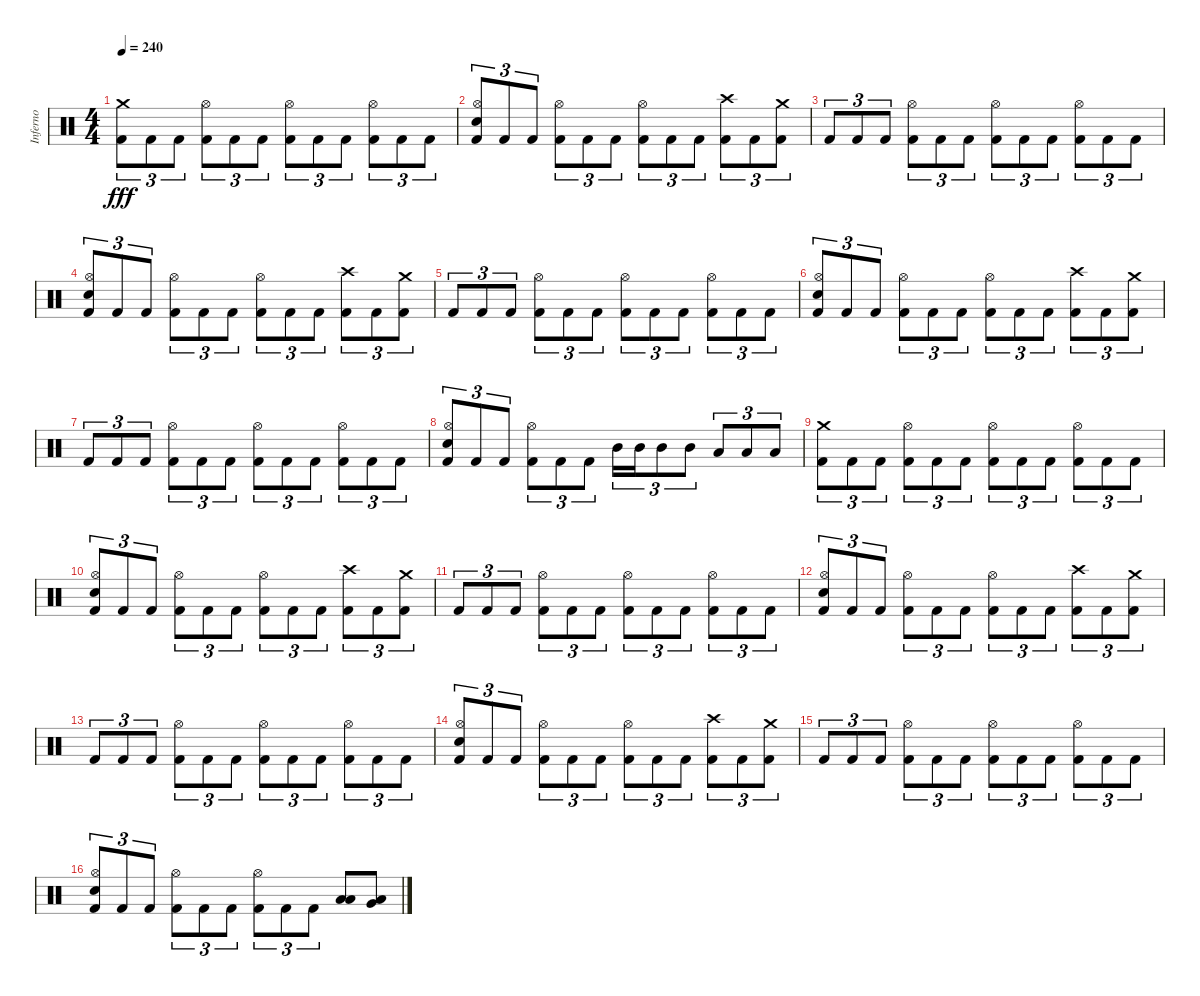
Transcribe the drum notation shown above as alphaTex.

\track ("Inferno" "Inferno") {instrument percussion}
\staff {score}
\articulation defaults
\ts (4 4)
\tempo 240
\clef neutral
\ks c
("Kick (hit) 2" "Crash medium (hit)").8{tu (3 2) dy fff} "Kick (hit) 2".8{tu (3 2)} "Kick (hit) 2".8{tu (3 2)} ("Kick (hit) 2" "Hi-Hat (open)").8{tu (3 2)} "Kick (hit) 2".8{tu (3 2)} "Kick (hit) 2".8{tu (3 2)} ("Kick (hit) 2" "Hi-Hat (open)").8{tu (3 2)} "Kick (hit) 2".8{tu (3 2)} "Kick (hit) 2".8{tu (3 2)} ("Kick (hit) 2" "Hi-Hat (open)").8{tu (3 2)} "Kick (hit) 2".8{tu (3 2)} "Kick (hit) 2".8{tu (3 2)} |
("Kick (hit) 2" "Electric Snare (hit)" "Hi-Hat (open)").8{tu (3 2)} "Kick (hit) 2".8{tu (3 2)} "Kick (hit) 2".8{tu (3 2)} ("Kick (hit) 2" "Hi-Hat (open)").8{tu (3 2)} "Kick (hit) 2".8{tu (3 2)} "Kick (hit) 2".8{tu (3 2)} ("Kick (hit) 2" "Hi-Hat (open)").8{tu (3 2)} "Kick (hit) 2".8{tu (3 2)} "Kick (hit) 2".8{tu (3 2)} ("Kick (hit) 2" "Crash high (hit)").8{tu (3 2)} "Kick (hit) 2".8{tu (3 2)} ("Kick (hit) 2" "Crash medium (hit)").8{tu (3 2)} |
"Kick (hit) 2".8{tu (3 2)} "Kick (hit) 2".8{tu (3 2)} "Kick (hit) 2".8{tu (3 2)} ("Kick (hit) 2" "Hi-Hat (open)").8{tu (3 2)} "Kick (hit) 2".8{tu (3 2)} "Kick (hit) 2".8{tu (3 2)} ("Kick (hit) 2" "Hi-Hat (open)").8{tu (3 2)} "Kick (hit) 2".8{tu (3 2)} "Kick (hit) 2".8{tu (3 2)} ("Kick (hit) 2" "Hi-Hat (open)").8{tu (3 2)} "Kick (hit) 2".8{tu (3 2)} "Kick (hit) 2".8{tu (3 2)} |
("Kick (hit) 2" "Electric Snare (hit)" "Hi-Hat (open)").8{tu (3 2)} "Kick (hit) 2".8{tu (3 2)} "Kick (hit) 2".8{tu (3 2)} ("Kick (hit) 2" "Hi-Hat (open)").8{tu (3 2)} "Kick (hit) 2".8{tu (3 2)} "Kick (hit) 2".8{tu (3 2)} ("Kick (hit) 2" "Hi-Hat (open)").8{tu (3 2)} "Kick (hit) 2".8{tu (3 2)} "Kick (hit) 2".8{tu (3 2)} ("Kick (hit) 2" "Crash high (hit)").8{tu (3 2)} "Kick (hit) 2".8{tu (3 2)} ("Kick (hit) 2" "Crash medium (hit)").8{tu (3 2)} |
"Kick (hit) 2".8{tu (3 2)} "Kick (hit) 2".8{tu (3 2)} "Kick (hit) 2".8{tu (3 2)} ("Kick (hit) 2" "Hi-Hat (open)").8{tu (3 2)} "Kick (hit) 2".8{tu (3 2)} "Kick (hit) 2".8{tu (3 2)} ("Kick (hit) 2" "Hi-Hat (open)").8{tu (3 2)} "Kick (hit) 2".8{tu (3 2)} "Kick (hit) 2".8{tu (3 2)} ("Kick (hit) 2" "Hi-Hat (open)").8{tu (3 2)} "Kick (hit) 2".8{tu (3 2)} "Kick (hit) 2".8{tu (3 2)} |
("Kick (hit) 2" "Electric Snare (hit)" "Hi-Hat (open)").8{tu (3 2)} "Kick (hit) 2".8{tu (3 2)} "Kick (hit) 2".8{tu (3 2)} ("Kick (hit) 2" "Hi-Hat (open)").8{tu (3 2)} "Kick (hit) 2".8{tu (3 2)} "Kick (hit) 2".8{tu (3 2)} ("Kick (hit) 2" "Hi-Hat (open)").8{tu (3 2)} "Kick (hit) 2".8{tu (3 2)} "Kick (hit) 2".8{tu (3 2)} ("Kick (hit) 2" "Crash high (hit)").8{tu (3 2)} "Kick (hit) 2".8{tu (3 2)} ("Kick (hit) 2" "Crash medium (hit)").8{tu (3 2)} |
"Kick (hit) 2".8{tu (3 2)} "Kick (hit) 2".8{tu (3 2)} "Kick (hit) 2".8{tu (3 2)} ("Kick (hit) 2" "Hi-Hat (open)").8{tu (3 2)} "Kick (hit) 2".8{tu (3 2)} "Kick (hit) 2".8{tu (3 2)} ("Kick (hit) 2" "Hi-Hat (open)").8{tu (3 2)} "Kick (hit) 2".8{tu (3 2)} "Kick (hit) 2".8{tu (3 2)} ("Kick (hit) 2" "Hi-Hat (open)").8{tu (3 2)} "Kick (hit) 2".8{tu (3 2)} "Kick (hit) 2".8{tu (3 2)} |
("Kick (hit) 2" "Electric Snare (hit)" "Hi-Hat (open)").8{tu (3 2)} "Kick (hit) 2".8{tu (3 2)} "Kick (hit) 2".8{tu (3 2)} ("Kick (hit) 2" "Hi-Hat (open)").8{tu (3 2)} "Kick (hit) 2".8{tu (3 2)} "Kick (hit) 2".8{tu (3 2)} "Mid Tom (hit)".16{tu (3 2)} "Mid Tom (hit)".16{tu (3 2)} "Mid Tom (hit)".8{tu (3 2)} "Mid Tom (hit)".8{tu (3 2)} "Low Tom (hit)".8{tu (3 2)} "Low Tom (hit)".8{tu (3 2)} "Low Tom (hit)".8{tu (3 2)} |
("Kick (hit) 2" "Crash medium (hit)").8{tu (3 2)} "Kick (hit) 2".8{tu (3 2)} "Kick (hit) 2".8{tu (3 2)} ("Kick (hit) 2" "Hi-Hat (open)").8{tu (3 2)} "Kick (hit) 2".8{tu (3 2)} "Kick (hit) 2".8{tu (3 2)} ("Kick (hit) 2" "Hi-Hat (open)").8{tu (3 2)} "Kick (hit) 2".8{tu (3 2)} "Kick (hit) 2".8{tu (3 2)} ("Kick (hit) 2" "Hi-Hat (open)").8{tu (3 2)} "Kick (hit) 2".8{tu (3 2)} "Kick (hit) 2".8{tu (3 2)} |
("Kick (hit) 2" "Electric Snare (hit)" "Hi-Hat (open)").8{tu (3 2)} "Kick (hit) 2".8{tu (3 2)} "Kick (hit) 2".8{tu (3 2)} ("Kick (hit) 2" "Hi-Hat (open)").8{tu (3 2)} "Kick (hit) 2".8{tu (3 2)} "Kick (hit) 2".8{tu (3 2)} ("Kick (hit) 2" "Hi-Hat (open)").8{tu (3 2)} "Kick (hit) 2".8{tu (3 2)} "Kick (hit) 2".8{tu (3 2)} ("Kick (hit) 2" "Crash high (hit)").8{tu (3 2)} "Kick (hit) 2".8{tu (3 2)} ("Kick (hit) 2" "Crash medium (hit)").8{tu (3 2)} |
"Kick (hit) 2".8{tu (3 2)} "Kick (hit) 2".8{tu (3 2)} "Kick (hit) 2".8{tu (3 2)} ("Kick (hit) 2" "Hi-Hat (open)").8{tu (3 2)} "Kick (hit) 2".8{tu (3 2)} "Kick (hit) 2".8{tu (3 2)} ("Kick (hit) 2" "Hi-Hat (open)").8{tu (3 2)} "Kick (hit) 2".8{tu (3 2)} "Kick (hit) 2".8{tu (3 2)} ("Kick (hit) 2" "Hi-Hat (open)").8{tu (3 2)} "Kick (hit) 2".8{tu (3 2)} "Kick (hit) 2".8{tu (3 2)} |
("Kick (hit) 2" "Electric Snare (hit)" "Hi-Hat (open)").8{tu (3 2)} "Kick (hit) 2".8{tu (3 2)} "Kick (hit) 2".8{tu (3 2)} ("Kick (hit) 2" "Hi-Hat (open)").8{tu (3 2)} "Kick (hit) 2".8{tu (3 2)} "Kick (hit) 2".8{tu (3 2)} ("Kick (hit) 2" "Hi-Hat (open)").8{tu (3 2)} "Kick (hit) 2".8{tu (3 2)} "Kick (hit) 2".8{tu (3 2)} ("Kick (hit) 2" "Crash high (hit)").8{tu (3 2)} "Kick (hit) 2".8{tu (3 2)} ("Kick (hit) 2" "Crash medium (hit)").8{tu (3 2)} |
"Kick (hit) 2".8{tu (3 2)} "Kick (hit) 2".8{tu (3 2)} "Kick (hit) 2".8{tu (3 2)} ("Kick (hit) 2" "Hi-Hat (open)").8{tu (3 2)} "Kick (hit) 2".8{tu (3 2)} "Kick (hit) 2".8{tu (3 2)} ("Kick (hit) 2" "Hi-Hat (open)").8{tu (3 2)} "Kick (hit) 2".8{tu (3 2)} "Kick (hit) 2".8{tu (3 2)} ("Kick (hit) 2" "Hi-Hat (open)").8{tu (3 2)} "Kick (hit) 2".8{tu (3 2)} "Kick (hit) 2".8{tu (3 2)} |
("Kick (hit) 2" "Electric Snare (hit)" "Hi-Hat (open)").8{tu (3 2)} "Kick (hit) 2".8{tu (3 2)} "Kick (hit) 2".8{tu (3 2)} ("Kick (hit) 2" "Hi-Hat (open)").8{tu (3 2)} "Kick (hit) 2".8{tu (3 2)} "Kick (hit) 2".8{tu (3 2)} ("Kick (hit) 2" "Hi-Hat (open)").8{tu (3 2)} "Kick (hit) 2".8{tu (3 2)} "Kick (hit) 2".8{tu (3 2)} ("Kick (hit) 2" "Crash high (hit)").8{tu (3 2)} "Kick (hit) 2".8{tu (3 2)} ("Kick (hit) 2" "Crash medium (hit)").8{tu (3 2)} |
"Kick (hit) 2".8{tu (3 2)} "Kick (hit) 2".8{tu (3 2)} "Kick (hit) 2".8{tu (3 2)} ("Kick (hit) 2" "Hi-Hat (open)").8{tu (3 2)} "Kick (hit) 2".8{tu (3 2)} "Kick (hit) 2".8{tu (3 2)} ("Kick (hit) 2" "Hi-Hat (open)").8{tu (3 2)} "Kick (hit) 2".8{tu (3 2)} "Kick (hit) 2".8{tu (3 2)} ("Kick (hit) 2" "Hi-Hat (open)").8{tu (3 2)} "Kick (hit) 2".8{tu (3 2)} "Kick (hit) 2".8{tu (3 2)} |
("Kick (hit) 2" "Electric Snare (hit)" "Hi-Hat (open)").8{tu (3 2)} "Kick (hit) 2".8{tu (3 2)} "Kick (hit) 2".8{tu (3 2)} ("Kick (hit) 2" "Hi-Hat (open)").8{tu (3 2)} "Kick (hit) 2".8{tu (3 2)} "Kick (hit) 2".8{tu (3 2)} ("Kick (hit) 2" "Hi-Hat (open)").8{tu (3 2)} "Kick (hit) 2".8{tu (3 2)} "Kick (hit) 2".8{tu (3 2)} ("Low Tom (hit)" "Low Floor Tom (hit)").8 ("Very Low Tom (hit)" "Low Floor Tom (hit)").8
